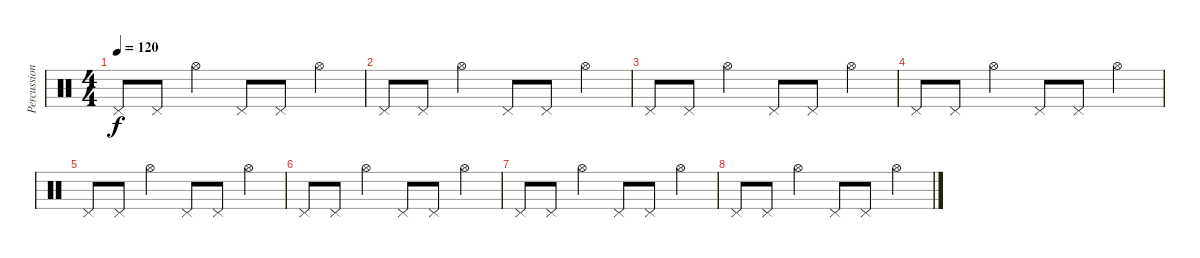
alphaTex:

\track ("Percussion" "Percussion") {instrument percussion}
\staff {score}
\articulation defaults
\ts (4 4)
\tempo 120
\clef neutral
\ks c "Pedal Hi-Hat (hit)".8{dy f} "Pedal Hi-Hat (hit)".8 "Hi-Hat (open)".4 "Pedal Hi-Hat (hit)".8 "Pedal Hi-Hat (hit)".8 "Hi-Hat (open)".4
|
"Pedal Hi-Hat (hit)".8 "Pedal Hi-Hat (hit)".8 "Hi-Hat (open)".4 "Pedal Hi-Hat (hit)".8 "Pedal Hi-Hat (hit)".8 "Hi-Hat (open)".4 |
"Pedal Hi-Hat (hit)".8 "Pedal Hi-Hat (hit)".8 "Hi-Hat (open)".4 "Pedal Hi-Hat (hit)".8 "Pedal Hi-Hat (hit)".8 "Hi-Hat (open)".4 |
"Pedal Hi-Hat (hit)".8 "Pedal Hi-Hat (hit)".8 "Hi-Hat (open)".4 "Pedal Hi-Hat (hit)".8 "Pedal Hi-Hat (hit)".8 "Hi-Hat (open)".4 |
"Pedal Hi-Hat (hit)".8 "Pedal Hi-Hat (hit)".8 "Hi-Hat (open)".4 "Pedal Hi-Hat (hit)".8 "Pedal Hi-Hat (hit)".8 "Hi-Hat (open)".4 |
"Pedal Hi-Hat (hit)".8 "Pedal Hi-Hat (hit)".8 "Hi-Hat (open)".4 "Pedal Hi-Hat (hit)".8 "Pedal Hi-Hat (hit)".8 "Hi-Hat (open)".4 |
"Pedal Hi-Hat (hit)".8 "Pedal Hi-Hat (hit)".8 "Hi-Hat (open)".4 "Pedal Hi-Hat (hit)".8 "Pedal Hi-Hat (hit)".8 "Hi-Hat (open)".4 |
"Pedal Hi-Hat (hit)".8 "Pedal Hi-Hat (hit)".8 "Hi-Hat (open)".4 "Pedal Hi-Hat (hit)".8 "Pedal Hi-Hat (hit)".8 "Hi-Hat (open)".4
